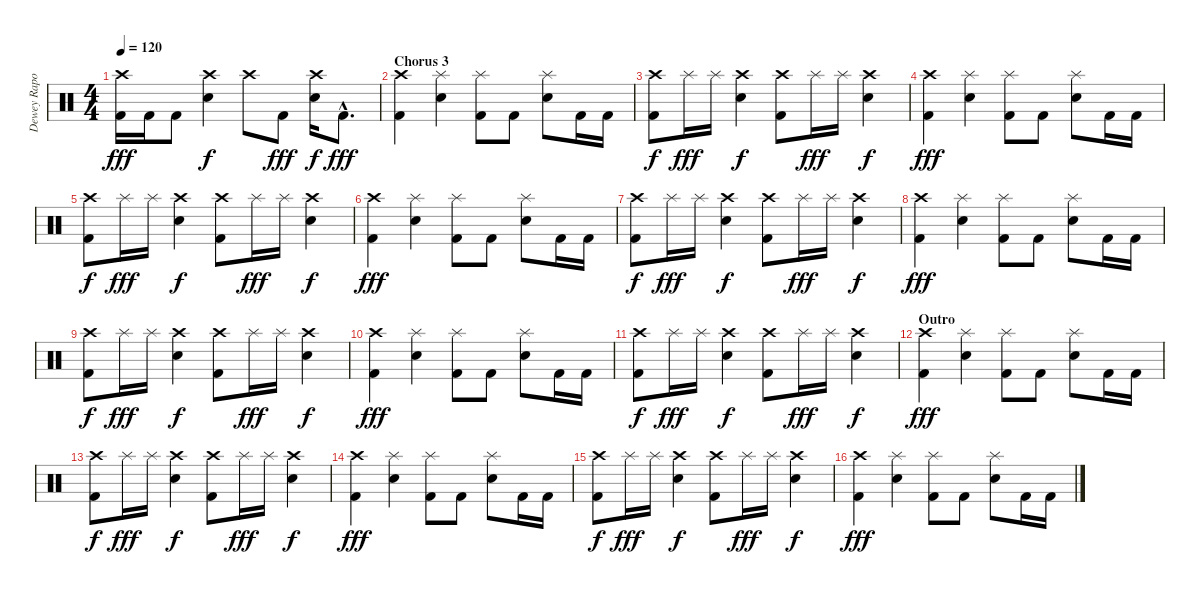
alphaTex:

\track ("Dewey Raposo" "Dewey Rapo") {instrument percussion}
\staff {score}
\articulation defaults
\ts (4 4)
\tempo 120
\clef neutral
\ks c
("Crash high (hit)" "Kick (hit) 2").16{dy fff} "Kick (hit) 2".16 "Kick (hit) 2".8 ("Crash high (hit)" "Electric Snare (hit)").4{dy f} "Crash high (hit)".8 "Kick (hit) 2".8{dy fff} ("Crash high (hit)" "Electric Snare (hit)").16{dy f} "Kick (hit) 2"{hac}.8{d dy fff} |
\section ("" "Chorus 3")
("Crash high (hit)" "Kick (hit) 2").4 ("Splash (hit)" "Electric Snare (hit)").4 ("Splash (hit)" "Kick (hit) 2").8 "Kick (hit) 2".8 ("Splash (hit)" "Electric Snare (hit)").8 "Kick (hit) 2".16 "Kick (hit) 2".16 |
("Crash high (hit)" "Kick (hit) 2").8{dy f} "Splash (hit)".16{dy fff} "Splash (hit)".16 ("Crash high (hit)" "Electric Snare (hit)").4{dy f} ("Crash high (hit)" "Kick (hit) 2").8 "Splash (hit)".16{dy fff} "Splash (hit)".16 ("Crash high (hit)" "Electric Snare (hit)").4{dy f} |
("Crash high (hit)" "Kick (hit) 2").4{dy fff} ("Splash (hit)" "Electric Snare (hit)").4 ("Splash (hit)" "Kick (hit) 2").8 "Kick (hit) 2".8 ("Splash (hit)" "Electric Snare (hit)").8 "Kick (hit) 2".16 "Kick (hit) 2".16 |
("Crash high (hit)" "Kick (hit) 2").8{dy f} "Splash (hit)".16{dy fff} "Splash (hit)".16 ("Crash high (hit)" "Electric Snare (hit)").4{dy f} ("Crash high (hit)" "Kick (hit) 2").8 "Splash (hit)".16{dy fff} "Splash (hit)".16 ("Crash high (hit)" "Electric Snare (hit)").4{dy f} |
("Crash high (hit)" "Kick (hit) 2").4{dy fff} ("Splash (hit)" "Electric Snare (hit)").4 ("Splash (hit)" "Kick (hit) 2").8 "Kick (hit) 2".8 ("Splash (hit)" "Electric Snare (hit)").8 "Kick (hit) 2".16 "Kick (hit) 2".16 |
("Crash high (hit)" "Kick (hit) 2").8{dy f} "Splash (hit)".16{dy fff} "Splash (hit)".16 ("Crash high (hit)" "Electric Snare (hit)").4{dy f} ("Crash high (hit)" "Kick (hit) 2").8 "Splash (hit)".16{dy fff} "Splash (hit)".16 ("Crash high (hit)" "Electric Snare (hit)").4{dy f} |
("Crash high (hit)" "Kick (hit) 2").4{dy fff} ("Splash (hit)" "Electric Snare (hit)").4 ("Splash (hit)" "Kick (hit) 2").8 "Kick (hit) 2".8 ("Splash (hit)" "Electric Snare (hit)").8 "Kick (hit) 2".16 "Kick (hit) 2".16 |
("Crash high (hit)" "Kick (hit) 2").8{dy f} "Splash (hit)".16{dy fff} "Splash (hit)".16 ("Crash high (hit)" "Electric Snare (hit)").4{dy f} ("Crash high (hit)" "Kick (hit) 2").8 "Splash (hit)".16{dy fff} "Splash (hit)".16 ("Crash high (hit)" "Electric Snare (hit)").4{dy f} |
("Crash high (hit)" "Kick (hit) 2").4{dy fff} ("Splash (hit)" "Electric Snare (hit)").4 ("Splash (hit)" "Kick (hit) 2").8 "Kick (hit) 2".8 ("Splash (hit)" "Electric Snare (hit)").8 "Kick (hit) 2".16 "Kick (hit) 2".16 |
("Crash high (hit)" "Kick (hit) 2").8{dy f} "Splash (hit)".16{dy fff} "Splash (hit)".16 ("Crash high (hit)" "Electric Snare (hit)").4{dy f} ("Crash high (hit)" "Kick (hit) 2").8 "Splash (hit)".16{dy fff} "Splash (hit)".16 ("Crash high (hit)" "Electric Snare (hit)").4{dy f} |
\section ("" "Outro")
("Crash high (hit)" "Kick (hit) 2").4{dy fff} ("Splash (hit)" "Electric Snare (hit)").4 ("Splash (hit)" "Kick (hit) 2").8 "Kick (hit) 2".8 ("Splash (hit)" "Electric Snare (hit)").8 "Kick (hit) 2".16 "Kick (hit) 2".16 |
("Crash high (hit)" "Kick (hit) 2").8{dy f} "Splash (hit)".16{dy fff} "Splash (hit)".16 ("Crash high (hit)" "Electric Snare (hit)").4{dy f} ("Crash high (hit)" "Kick (hit) 2").8 "Splash (hit)".16{dy fff} "Splash (hit)".16 ("Crash high (hit)" "Electric Snare (hit)").4{dy f} |
("Crash high (hit)" "Kick (hit) 2").4{dy fff} ("Splash (hit)" "Electric Snare (hit)").4 ("Splash (hit)" "Kick (hit) 2").8 "Kick (hit) 2".8 ("Splash (hit)" "Electric Snare (hit)").8 "Kick (hit) 2".16 "Kick (hit) 2".16 |
("Crash high (hit)" "Kick (hit) 2").8{dy f} "Splash (hit)".16{dy fff} "Splash (hit)".16 ("Crash high (hit)" "Electric Snare (hit)").4{dy f} ("Crash high (hit)" "Kick (hit) 2").8 "Splash (hit)".16{dy fff} "Splash (hit)".16 ("Crash high (hit)" "Electric Snare (hit)").4{dy f} |
("Crash high (hit)" "Kick (hit) 2").4{dy fff} ("Splash (hit)" "Electric Snare (hit)").4 ("Splash (hit)" "Kick (hit) 2").8 "Kick (hit) 2".8 ("Splash (hit)" "Electric Snare (hit)").8 "Kick (hit) 2".16 "Kick (hit) 2".16
